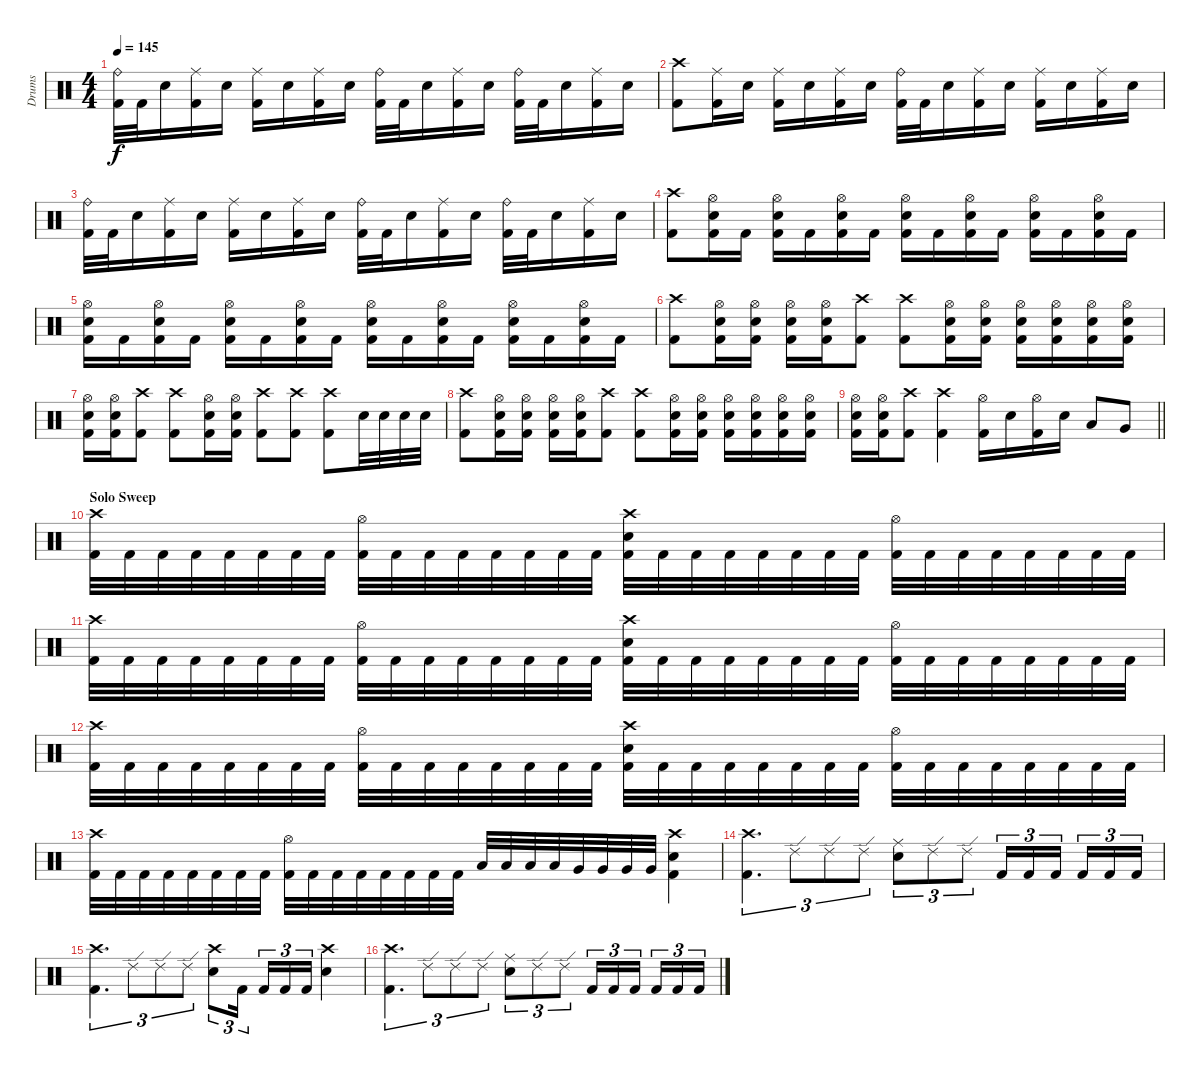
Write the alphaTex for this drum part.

\track ("Drums" "Drums") {instrument percussion}
\staff {score}
\articulation defaults
\ts (4 4)
\tempo 145
\clef neutral
\ks c
("Kick (hit) 2" "Ride (bell)").32{dy f} "Kick (hit) 2".32 "Snare (hit) 2".16 ("Kick (hit) 2" "Ride (middle)").16 "Snare (hit) 2".16 ("Kick (hit) 2" "Ride (middle)").16 "Snare (hit) 2".16 ("Kick (hit) 2" "Ride (middle)").16 "Snare (hit) 2".16 ("Kick (hit) 2" "Ride (bell)").32 "Kick (hit) 2".32 "Snare (hit) 2".16 ("Kick (hit) 2" "Ride (middle)").16 "Snare (hit) 2".16 ("Kick (hit) 2" "Ride (bell)").32 "Kick (hit) 2".32 "Snare (hit) 2".16 ("Kick (hit) 2" "Ride (middle)").16 "Snare (hit) 2".16 |
("Kick (hit) 2" "Crash high (hit)").8 ("Kick (hit) 2" "Ride (middle)").16 "Snare (hit) 2".16 ("Kick (hit) 2" "Ride (middle)").16 "Snare (hit) 2".16 ("Kick (hit) 2" "Ride (middle)").16 "Snare (hit) 2".16 ("Kick (hit) 2" "Ride (bell)").32 "Kick (hit) 2".32 "Snare (hit) 2".16 ("Kick (hit) 2" "Ride (middle)").16 "Snare (hit) 2".16 ("Kick (hit) 2" "Ride (middle)").16 "Snare (hit) 2".16 ("Kick (hit) 2" "Ride (middle)").16 "Snare (hit) 2".16 |
("Kick (hit) 2" "Ride (bell)").32 "Kick (hit) 2".32 "Snare (hit) 2".16 ("Kick (hit) 2" "Ride (middle)").16 "Snare (hit) 2".16 ("Kick (hit) 2" "Ride (middle)").16 "Snare (hit) 2".16 ("Kick (hit) 2" "Ride (middle)").16 "Snare (hit) 2".16 ("Kick (hit) 2" "Ride (bell)").32 "Kick (hit) 2".32 "Snare (hit) 2".16 ("Kick (hit) 2" "Ride (middle)").16 "Snare (hit) 2".16 ("Kick (hit) 2" "Ride (bell)").32 "Kick (hit) 2".32 "Snare (hit) 2".16 ("Kick (hit) 2" "Ride (middle)").16 "Snare (hit) 2".16 |
("Kick (hit) 2" "Crash high (hit)").8 ("Kick (hit) 2" "Snare (hit) 2" "Hi-Hat (open)").16 "Kick (hit) 2".16 ("Kick (hit) 2" "Snare (hit) 2" "Hi-Hat (open)").16 "Kick (hit) 2".16 ("Kick (hit) 2" "Snare (hit) 2" "Hi-Hat (open)").16 "Kick (hit) 2".16 ("Kick (hit) 2" "Snare (hit) 2" "Hi-Hat (open)").16 "Kick (hit) 2".16 ("Kick (hit) 2" "Snare (hit) 2" "Hi-Hat (open)").16 "Kick (hit) 2".16 ("Kick (hit) 2" "Snare (hit) 2" "Hi-Hat (open)").16 "Kick (hit) 2".16 ("Kick (hit) 2" "Snare (hit) 2" "Hi-Hat (open)").16 "Kick (hit) 2".16 |
("Kick (hit) 2" "Snare (hit) 2" "Hi-Hat (open)").16 "Kick (hit) 2".16 ("Kick (hit) 2" "Snare (hit) 2" "Hi-Hat (open)").16 "Kick (hit) 2".16 ("Kick (hit) 2" "Snare (hit) 2" "Hi-Hat (open)").16 "Kick (hit) 2".16 ("Kick (hit) 2" "Snare (hit) 2" "Hi-Hat (open)").16 "Kick (hit) 2".16 ("Kick (hit) 2" "Snare (hit) 2" "Hi-Hat (open)").16 "Kick (hit) 2".16 ("Kick (hit) 2" "Snare (hit) 2" "Hi-Hat (open)").16 "Kick (hit) 2".16 ("Kick (hit) 2" "Snare (hit) 2" "Hi-Hat (open)").16 "Kick (hit) 2".16 ("Kick (hit) 2" "Snare (hit) 2" "Hi-Hat (open)").16 "Kick (hit) 2".16 |
("Kick (hit) 2" "Crash high (hit)").8 ("Snare (hit) 2" "Kick (hit) 2" "Hi-Hat (open)").16 ("Snare (hit) 2" "Kick (hit) 2" "Hi-Hat (open)").16 ("Snare (hit) 2" "Kick (hit) 2" "Hi-Hat (open)").16 ("Snare (hit) 2" "Kick (hit) 2" "Hi-Hat (open)").16 ("Kick (hit) 2" "Crash high (hit)").8 ("Kick (hit) 2" "Crash high (hit)").8 ("Snare (hit) 2" "Kick (hit) 2" "Hi-Hat (open)").16 ("Snare (hit) 2" "Kick (hit) 2" "Hi-Hat (open)").16 ("Snare (hit) 2" "Kick (hit) 2" "Hi-Hat (open)").16 ("Snare (hit) 2" "Kick (hit) 2" "Hi-Hat (open)").16 ("Snare (hit) 2" "Kick (hit) 2" "Hi-Hat (open)").16 ("Snare (hit) 2" "Kick (hit) 2" "Hi-Hat (open)").16 |
("Snare (hit) 2" "Kick (hit) 2" "Hi-Hat (open)").16 ("Snare (hit) 2" "Kick (hit) 2" "Hi-Hat (open)").16 ("Kick (hit) 2" "Crash high (hit)").8 ("Kick (hit) 2" "Crash high (hit)").8 ("Snare (hit) 2" "Kick (hit) 2" "Hi-Hat (open)").16 ("Snare (hit) 2" "Kick (hit) 2" "Hi-Hat (open)").16 ("Kick (hit) 2" "Crash high (hit)").8 ("Kick (hit) 2" "Crash high (hit)").8 ("Kick (hit) 2" "Crash high (hit)").8 "Snare (hit) 2".32{volume 11} "Snare (hit) 2".32 "Snare (hit) 2".32 "Snare (hit) 2".32 |
("Kick (hit) 2" "Crash high (hit)").8 ("Snare (hit) 2" "Kick (hit) 2" "Hi-Hat (open)").16 ("Snare (hit) 2" "Kick (hit) 2" "Hi-Hat (open)").16 ("Snare (hit) 2" "Kick (hit) 2" "Hi-Hat (open)").16 ("Snare (hit) 2" "Kick (hit) 2" "Hi-Hat (open)").16 ("Kick (hit) 2" "Crash high (hit)").8 ("Kick (hit) 2" "Crash high (hit)").8 ("Snare (hit) 2" "Kick (hit) 2" "Hi-Hat (open)").16 ("Snare (hit) 2" "Kick (hit) 2" "Hi-Hat (open)").16 ("Snare (hit) 2" "Kick (hit) 2" "Hi-Hat (open)").16 ("Snare (hit) 2" "Kick (hit) 2" "Hi-Hat (open)").16 ("Snare (hit) 2" "Kick (hit) 2" "Hi-Hat (open)").16 ("Snare (hit) 2" "Kick (hit) 2" "Hi-Hat (open)").16 |
\barLineRight lightlight
("Snare (hit) 2" "Kick (hit) 2" "Hi-Hat (open)").16 ("Snare (hit) 2" "Kick (hit) 2" "Hi-Hat (open)").16 ("Kick (hit) 2" "Crash high (hit)").8 ("Kick (hit) 2" "Crash high (hit)").4 ("Hi-Hat (open)" "Kick (hit) 2").16 "Snare (hit) 2".16 ("Hi-Hat (open)" "Kick (hit) 2").16 "Snare (hit) 2".16 "Low Tom (hit)".8 "Very Low Tom (hit)".8 |
\section ("" "Solo Sweep")
("Crash high (hit)" "Kick (hit) 2").32 "Kick (hit) 2".32 "Kick (hit) 2".32 "Kick (hit) 2".32 "Kick (hit) 2".32 "Kick (hit) 2".32 "Kick (hit) 2".32 "Kick (hit) 2".32 ("Kick (hit) 2" "Hi-Hat (open)").32 "Kick (hit) 2".32 "Kick (hit) 2".32 "Kick (hit) 2".32 "Kick (hit) 2".32 "Kick (hit) 2".32 "Kick (hit) 2".32 "Kick (hit) 2".32 ("Kick (hit) 2" "Crash high (hit)" "Snare (hit) 2").32 "Kick (hit) 2".32 "Kick (hit) 2".32 "Kick (hit) 2".32 "Kick (hit) 2".32 "Kick (hit) 2".32 "Kick (hit) 2".32 "Kick (hit) 2".32 ("Kick (hit) 2" "Hi-Hat (open)").32 "Kick (hit) 2".32 "Kick (hit) 2".32 "Kick (hit) 2".32 "Kick (hit) 2".32 "Kick (hit) 2".32 "Kick (hit) 2".32 "Kick (hit) 2".32 |
("Crash high (hit)" "Kick (hit) 2").32 "Kick (hit) 2".32 "Kick (hit) 2".32 "Kick (hit) 2".32 "Kick (hit) 2".32 "Kick (hit) 2".32 "Kick (hit) 2".32 "Kick (hit) 2".32 ("Kick (hit) 2" "Hi-Hat (open)").32 "Kick (hit) 2".32 "Kick (hit) 2".32 "Kick (hit) 2".32 "Kick (hit) 2".32 "Kick (hit) 2".32 "Kick (hit) 2".32 "Kick (hit) 2".32 ("Kick (hit) 2" "Crash high (hit)" "Snare (hit) 2").32 "Kick (hit) 2".32 "Kick (hit) 2".32 "Kick (hit) 2".32 "Kick (hit) 2".32 "Kick (hit) 2".32 "Kick (hit) 2".32 "Kick (hit) 2".32 ("Kick (hit) 2" "Hi-Hat (open)").32 "Kick (hit) 2".32 "Kick (hit) 2".32 "Kick (hit) 2".32 "Kick (hit) 2".32 "Kick (hit) 2".32 "Kick (hit) 2".32 "Kick (hit) 2".32 |
("Crash high (hit)" "Kick (hit) 2").32 "Kick (hit) 2".32 "Kick (hit) 2".32 "Kick (hit) 2".32 "Kick (hit) 2".32 "Kick (hit) 2".32 "Kick (hit) 2".32 "Kick (hit) 2".32 ("Kick (hit) 2" "Hi-Hat (open)").32 "Kick (hit) 2".32 "Kick (hit) 2".32 "Kick (hit) 2".32 "Kick (hit) 2".32 "Kick (hit) 2".32 "Kick (hit) 2".32 "Kick (hit) 2".32 ("Kick (hit) 2" "Crash high (hit)" "Snare (hit) 2").32 "Kick (hit) 2".32 "Kick (hit) 2".32 "Kick (hit) 2".32 "Kick (hit) 2".32 "Kick (hit) 2".32 "Kick (hit) 2".32 "Kick (hit) 2".32 ("Kick (hit) 2" "Hi-Hat (open)").32 "Kick (hit) 2".32 "Kick (hit) 2".32 "Kick (hit) 2".32 "Kick (hit) 2".32 "Kick (hit) 2".32 "Kick (hit) 2".32 "Kick (hit) 2".32 |
("Crash high (hit)" "Kick (hit) 2").32 "Kick (hit) 2".32 "Kick (hit) 2".32 "Kick (hit) 2".32 "Kick (hit) 2".32 "Kick (hit) 2".32 "Kick (hit) 2".32 "Kick (hit) 2".32 ("Kick (hit) 2" "Hi-Hat (open)").32 "Kick (hit) 2".32 "Kick (hit) 2".32 "Kick (hit) 2".32 "Kick (hit) 2".32 "Kick (hit) 2".32 "Kick (hit) 2".32 "Kick (hit) 2".32 "Low Tom (hit)".32 "Low Tom (hit)".32 "Low Tom (hit)".32 "Low Tom (hit)".32 "Very Low Tom (hit)".32 "Very Low Tom (hit)".32 "Very Low Tom (hit)".32 "Very Low Tom (hit)".32 ("Snare (hit) 2" "Crash high (hit)" "Kick (hit) 2").4 |
("Crash high (hit)" "Kick (hit) 2").4{d tu (3 2)} "Ride (edge) 2".8{tu (3 2)} "Ride (edge) 2".8{tu (3 2)} "Ride (edge) 2".8{tu (3 2)} ("Snare (hit) 2" "Ride (middle)").8{tu (3 2)} "Ride (edge) 2".8{tu (3 2)} "Ride (edge) 2".8{tu (3 2)} "Kick (hit) 2".16{tu (3 2)} "Kick (hit) 2".16{tu (3 2)} "Kick (hit) 2".16{tu (3 2) beam splitsecondary} "Kick (hit) 2".16{tu (3 2)} "Kick (hit) 2".16{tu (3 2)} "Kick (hit) 2".16{tu (3 2)} |
("Crash high (hit)" "Kick (hit) 2").4{d tu (3 2)} "Ride (edge) 2".8{tu (3 2)} "Ride (edge) 2".8{tu (3 2)} "Ride (edge) 2".8{tu (3 2)} ("Snare (hit) 2" "Crash high (hit)").8{tu (3 2)} "Kick (hit) 2".16{tu (3 2) beam splitsecondary} "Kick (hit) 2".16{tu (3 2)} "Kick (hit) 2".16{tu (3 2)} "Kick (hit) 2".16{tu (3 2)} ("Snare (hit) 2" "Crash high (hit)").4 |
("Crash high (hit)" "Kick (hit) 2").4{d tu (3 2)} "Ride (edge) 2".8{tu (3 2)} "Ride (edge) 2".8{tu (3 2)} "Ride (edge) 2".8{tu (3 2)} ("Snare (hit) 2" "Ride (middle)").8{tu (3 2)} "Ride (edge) 2".8{tu (3 2)} "Ride (edge) 2".8{tu (3 2)} "Kick (hit) 2".16{tu (3 2)} "Kick (hit) 2".16{tu (3 2)} "Kick (hit) 2".16{tu (3 2) beam splitsecondary} "Kick (hit) 2".16{tu (3 2)} "Kick (hit) 2".16{tu (3 2)} "Kick (hit) 2".16{tu (3 2)}
